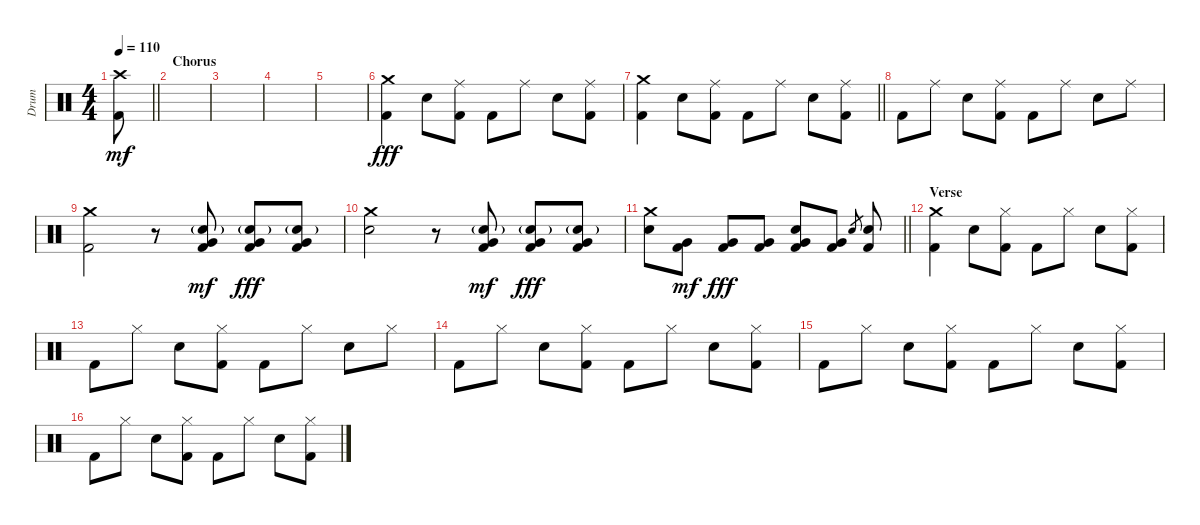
\track ("Drum" "Drum") {instrument percussion}
\staff {score}
\articulation defaults
\ts (4 4)
\tempo 110
\clef neutral
\barLineRight lightlight
\ks c
("Crash high (hit)" "Kick (hit) 2").8{dy mf} |
\section ("" "Chorus")
|
|
|
|
("Crash medium (hit)" "Kick (hit) 2").4{dy fff} "Electric Snare (hit)".8 ("Ride (middle)" "Kick (hit) 2").8 "Kick (hit) 2".8 "Ride (middle)".8 "Electric Snare (hit)".8 ("Ride (middle)" "Kick (hit) 2").8 |
\barLineRight lightlight
("Crash medium (hit)" "Kick (hit) 2").4 "Electric Snare (hit)".8 ("Ride (middle)" "Kick (hit) 2").8 "Kick (hit) 2".8 "Ride (middle)".8 "Electric Snare (hit)".8 ("Ride (middle)" "Kick (hit) 2").8 |
"Kick (hit) 2".8 "Ride (middle)".8 "Electric Snare (hit)".8 ("Ride (middle)" "Kick (hit) 2").8 "Kick (hit) 2".8 "Ride (middle)".8 "Electric Snare (hit)".8 "Ride (middle)".8 |
("Crash medium (hit)" "Kick (hit) 2").2 r.8 ("Very Low Tom (hit)" "Kick (hit) 2" "Electric Snare (hit)"{g}).8{dy mf} ("Very Low Tom (hit)" "Kick (hit) 2" "Electric Snare (hit)"{g}).8{dy fff} ("Very Low Tom (hit)" "Kick (hit) 2" "Electric Snare (hit)"{g}).8 |
("Crash medium (hit)" "Electric Snare (hit)").2 r.8 ("Very Low Tom (hit)" "Kick (hit) 2" "Electric Snare (hit)"{g}).8{dy mf} ("Very Low Tom (hit)" "Kick (hit) 2" "Electric Snare (hit)"{g}).8{dy fff} ("Very Low Tom (hit)" "Kick (hit) 2" "Electric Snare (hit)"{g}).8 |
\barLineRight lightlight
("Crash medium (hit)" "Electric Snare (hit)").8 ("Very Low Tom (hit)" "Kick (hit) 2").8{dy mf} ("Very Low Tom (hit)" "Kick (hit) 2").8{dy fff} ("Very Low Tom (hit)" "Kick (hit) 2").8 ("Very Low Tom (hit)" "Kick (hit) 2" "Electric Snare (hit)").8 ("Very Low Tom (hit)" "Kick (hit) 2").8 "Electric Snare (hit)".8{gr} ("Kick (hit) 2" "Electric Snare (hit)").8 |
\section ("" "Verse")
("Crash medium (hit)" "Kick (hit) 2").4 "Electric Snare (hit)".8 ("Hi-Hat (closed)" "Kick (hit) 2").8 "Kick (hit) 2".8 "Hi-Hat (closed)".8 "Electric Snare (hit)".8 ("Hi-Hat (closed)" "Kick (hit) 2").8 |
"Kick (hit) 2".8 "Hi-Hat (closed)".8 "Electric Snare (hit)".8 ("Hi-Hat (closed)" "Kick (hit) 2").8 "Kick (hit) 2".8 "Hi-Hat (closed)".8 "Electric Snare (hit)".8 "Hi-Hat (closed)".8 |
"Kick (hit) 2".8 "Hi-Hat (closed)".8 "Electric Snare (hit)".8 ("Hi-Hat (closed)" "Kick (hit) 2").8 "Kick (hit) 2".8 "Hi-Hat (closed)".8 "Electric Snare (hit)".8 ("Hi-Hat (closed)" "Kick (hit) 2").8 |
"Kick (hit) 2".8 "Hi-Hat (closed)".8 "Electric Snare (hit)".8 ("Hi-Hat (closed)" "Kick (hit) 2").8 "Kick (hit) 2".8 "Hi-Hat (closed)".8 "Electric Snare (hit)".8 ("Hi-Hat (closed)" "Kick (hit) 2").8 |
"Kick (hit) 2".8 "Hi-Hat (closed)".8 "Electric Snare (hit)".8 ("Hi-Hat (closed)" "Kick (hit) 2").8 "Kick (hit) 2".8 "Hi-Hat (closed)".8 "Electric Snare (hit)".8 ("Hi-Hat (closed)" "Kick (hit) 2").8
